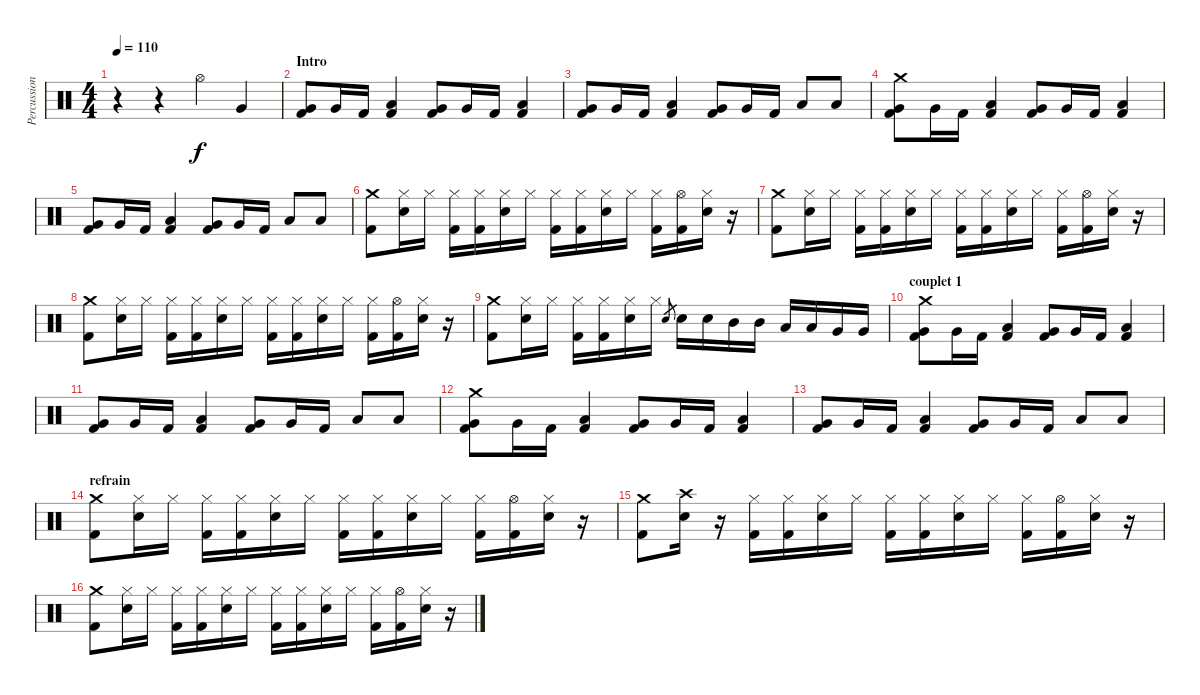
\track ("Percussions" "Percussion") {instrument percussion}
\staff {score}
\articulation defaults
\ts (4 4)
\tempo 110
\clef neutral
\ks c
r.4{dy f} r.4 "Hi-Hat (open)".4 "Very Low Tom (hit)".4 |
\section ("" "Intro")
("Very Low Tom (hit)" "Kick (hit) 2").8 "Very Low Tom (hit)".16 "Kick (hit) 2".16 ("Low Tom (hit)" "Kick (hit) 2").4 ("Very Low Tom (hit)" "Kick (hit) 2").8 "Very Low Tom (hit)".16 "Kick (hit) 2".16 ("Low Tom (hit)" "Kick (hit) 2").4 |
("Very Low Tom (hit)" "Kick (hit) 2").8 "Very Low Tom (hit)".16 "Kick (hit) 2".16 ("Low Tom (hit)" "Kick (hit) 2").4 ("Very Low Tom (hit)" "Kick (hit) 2").8 "Very Low Tom (hit)".16 "Kick (hit) 2".16 "Low Tom (hit)".8 "Low Tom (hit)".8 |
("Crash medium (hit)" "Very Low Tom (hit)" "Kick (hit) 2").8 "Very Low Tom (hit)".16 "Kick (hit) 2".16 ("Low Tom (hit)" "Kick (hit) 2").4 ("Very Low Tom (hit)" "Kick (hit) 2").8 "Very Low Tom (hit)".16 "Kick (hit) 2".16 ("Low Tom (hit)" "Kick (hit) 2").4 |
("Very Low Tom (hit)" "Kick (hit) 2").8 "Very Low Tom (hit)".16 "Kick (hit) 2".16 ("Low Tom (hit)" "Kick (hit) 2").4 ("Very Low Tom (hit)" "Kick (hit) 2").8 "Very Low Tom (hit)".16 "Kick (hit) 2".16 "Low Tom (hit)".8 "Low Tom (hit)".8 |
("Crash medium (hit)" "Kick (hit) 2").8 ("Hi-Hat (closed)" "Electric Snare (hit)").16 "Hi-Hat (closed)".16 ("Hi-Hat (closed)" "Kick (hit) 2").16 ("Hi-Hat (closed)" "Kick (hit) 2").16 ("Hi-Hat (closed)" "Electric Snare (hit)").16 "Hi-Hat (closed)".16 ("Hi-Hat (closed)" "Kick (hit) 2").16 ("Hi-Hat (closed)" "Kick (hit) 2").16 ("Hi-Hat (closed)" "Electric Snare (hit)").16 "Hi-Hat (closed)".16 ("Hi-Hat (closed)" "Kick (hit) 2").16 ("Hi-Hat (open)" "Kick (hit) 2").16 ("Hi-Hat (closed)" "Electric Snare (hit)").16 r.16 |
("Crash medium (hit)" "Kick (hit) 2").8 ("Hi-Hat (closed)" "Electric Snare (hit)").16 "Hi-Hat (closed)".16 ("Hi-Hat (closed)" "Kick (hit) 2").16 ("Hi-Hat (closed)" "Kick (hit) 2").16 ("Hi-Hat (closed)" "Electric Snare (hit)").16 "Hi-Hat (closed)".16 ("Hi-Hat (closed)" "Kick (hit) 2").16 ("Hi-Hat (closed)" "Kick (hit) 2").16 ("Hi-Hat (closed)" "Electric Snare (hit)").16 "Hi-Hat (closed)".16 ("Hi-Hat (closed)" "Kick (hit) 2").16 ("Hi-Hat (open)" "Kick (hit) 2").16 ("Hi-Hat (closed)" "Electric Snare (hit)").16 r.16 |
("Crash medium (hit)" "Kick (hit) 2").8 ("Hi-Hat (closed)" "Electric Snare (hit)").16 "Hi-Hat (closed)".16 ("Hi-Hat (closed)" "Kick (hit) 2").16 ("Hi-Hat (closed)" "Kick (hit) 2").16 ("Hi-Hat (closed)" "Electric Snare (hit)").16 "Hi-Hat (closed)".16 ("Hi-Hat (closed)" "Kick (hit) 2").16 ("Hi-Hat (closed)" "Kick (hit) 2").16 ("Hi-Hat (closed)" "Electric Snare (hit)").16 "Hi-Hat (closed)".16 ("Hi-Hat (closed)" "Kick (hit) 2").16 ("Hi-Hat (open)" "Kick (hit) 2").16 ("Hi-Hat (closed)" "Electric Snare (hit)").16 r.16 |
("Crash medium (hit)" "Kick (hit) 2").8 ("Hi-Hat (closed)" "Electric Snare (hit)").16 "Hi-Hat (closed)".16 ("Hi-Hat (closed)" "Kick (hit) 2").16 ("Hi-Hat (closed)" "Kick (hit) 2").16 ("Hi-Hat (closed)" "Electric Snare (hit)").16 "Hi-Hat (closed)".16 "Electric Snare (hit)".8{gr} "Electric Snare (hit)".16 "Electric Snare (hit)".16 "Mid Tom (hit)".16 "Mid Tom (hit)".16 "Low Tom (hit)".16 "Low Tom (hit)".16 "Very Low Tom (hit)".16 "Very Low Tom (hit)".16 |
\section ("" "couplet 1")
("Crash medium (hit)" "Very Low Tom (hit)" "Kick (hit) 2").8 "Very Low Tom (hit)".16 "Kick (hit) 2".16 ("Low Tom (hit)" "Kick (hit) 2").4 ("Very Low Tom (hit)" "Kick (hit) 2").8 "Very Low Tom (hit)".16 "Kick (hit) 2".16 ("Low Tom (hit)" "Kick (hit) 2").4 |
("Very Low Tom (hit)" "Kick (hit) 2").8 "Very Low Tom (hit)".16 "Kick (hit) 2".16 ("Low Tom (hit)" "Kick (hit) 2").4 ("Very Low Tom (hit)" "Kick (hit) 2").8 "Very Low Tom (hit)".16 "Kick (hit) 2".16 "Low Tom (hit)".8 "Low Tom (hit)".8 |
("Crash medium (hit)" "Very Low Tom (hit)" "Kick (hit) 2").8 "Very Low Tom (hit)".16 "Kick (hit) 2".16 ("Low Tom (hit)" "Kick (hit) 2").4 ("Very Low Tom (hit)" "Kick (hit) 2").8 "Very Low Tom (hit)".16 "Kick (hit) 2".16 ("Low Tom (hit)" "Kick (hit) 2").4 |
("Very Low Tom (hit)" "Kick (hit) 2").8 "Very Low Tom (hit)".16 "Kick (hit) 2".16 ("Low Tom (hit)" "Kick (hit) 2").4 ("Very Low Tom (hit)" "Kick (hit) 2").8 "Very Low Tom (hit)".16 "Kick (hit) 2".16 "Low Tom (hit)".8 "Low Tom (hit)".8 |
\section ("" "refrain")
("Crash medium (hit)" "Kick (hit) 2").8 ("Hi-Hat (closed)" "Electric Snare (hit)").16 "Hi-Hat (closed)".16 ("Hi-Hat (closed)" "Kick (hit) 2").16 ("Hi-Hat (closed)" "Kick (hit) 2").16 ("Hi-Hat (closed)" "Electric Snare (hit)").16 "Hi-Hat (closed)".16 ("Hi-Hat (closed)" "Kick (hit) 2").16 ("Hi-Hat (closed)" "Kick (hit) 2").16 ("Hi-Hat (closed)" "Electric Snare (hit)").16 "Hi-Hat (closed)".16 ("Hi-Hat (closed)" "Kick (hit) 2").16 ("Hi-Hat (open)" "Kick (hit) 2").16 ("Hi-Hat (closed)" "Electric Snare (hit)").16 r.16 |
("Crash medium (hit)" "Kick (hit) 2").8 ("Crash high (hit)" "Electric Snare (hit)").16 r.16 ("Hi-Hat (closed)" "Kick (hit) 2").16 ("Hi-Hat (closed)" "Kick (hit) 2").16 ("Hi-Hat (closed)" "Electric Snare (hit)").16 "Hi-Hat (closed)".16 ("Hi-Hat (closed)" "Kick (hit) 2").16 ("Hi-Hat (closed)" "Kick (hit) 2").16 ("Hi-Hat (closed)" "Electric Snare (hit)").16 "Hi-Hat (closed)".16 ("Hi-Hat (closed)" "Kick (hit) 2").16 ("Hi-Hat (open)" "Kick (hit) 2").16 ("Hi-Hat (closed)" "Electric Snare (hit)").16 r.16 |
("Crash medium (hit)" "Kick (hit) 2").8 ("Hi-Hat (closed)" "Electric Snare (hit)").16 "Hi-Hat (closed)".16 ("Hi-Hat (closed)" "Kick (hit) 2").16 ("Hi-Hat (closed)" "Kick (hit) 2").16 ("Hi-Hat (closed)" "Electric Snare (hit)").16 "Hi-Hat (closed)".16 ("Hi-Hat (closed)" "Kick (hit) 2").16 ("Hi-Hat (closed)" "Kick (hit) 2").16 ("Hi-Hat (closed)" "Electric Snare (hit)").16 "Hi-Hat (closed)".16 ("Hi-Hat (closed)" "Kick (hit) 2").16 ("Hi-Hat (open)" "Kick (hit) 2").16 ("Hi-Hat (closed)" "Electric Snare (hit)").16 r.16
